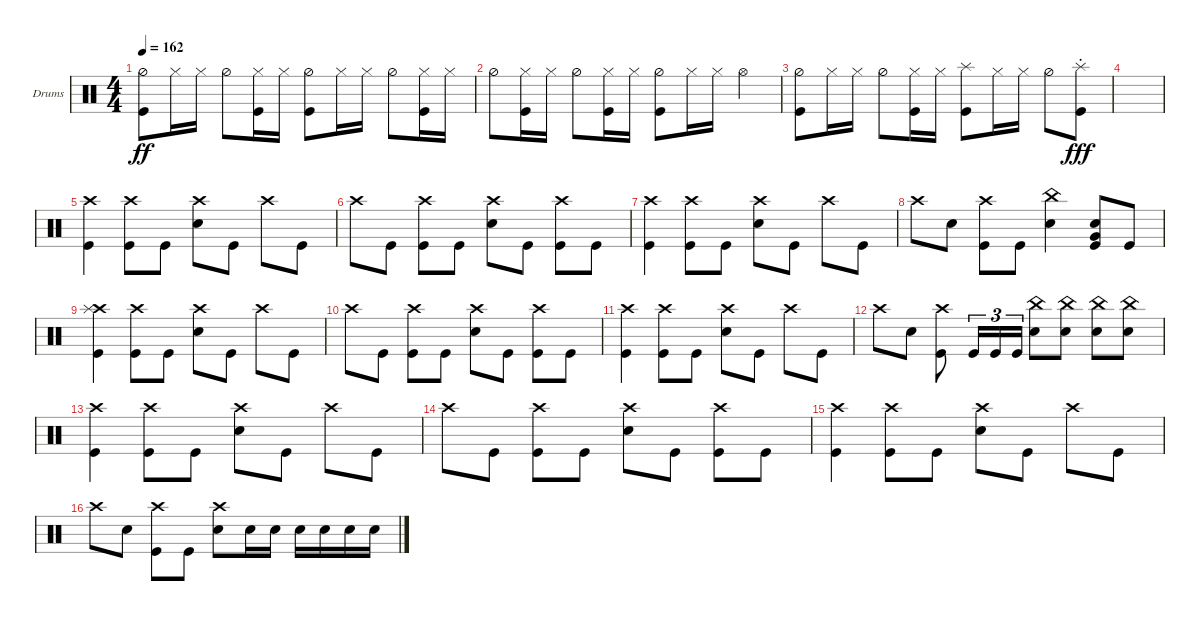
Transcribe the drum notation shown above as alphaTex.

\bracketExtendMode groupsimilarinstruments
\firstSystemTrackNameOrientation horizontal
\otherSystemsTrackNameOrientation horizontal
\track ("Drumkit" "Drums") {instrument percussion}
\staff {score}
\articulation defaults
\ts (4 4)
\tempo 162
\clef neutral
\ks c
("Hi-Hat (half)" "Kick (hit)").8{dy ff} "Hi-Hat (closed)".16 "Hi-Hat (closed)".16 "Hi-Hat (half)".8 ("Kick (hit)" "Hi-Hat (closed)").16 "Hi-Hat (closed)".16 ("Hi-Hat (half)" "Kick (hit)").8 "Hi-Hat (closed)".16 "Hi-Hat (closed)".16 "Hi-Hat (half)".8 ("Kick (hit)" "Hi-Hat (closed)").16 "Hi-Hat (closed)".16 |
"Hi-Hat (half)".8 ("Hi-Hat (closed)" "Kick (hit)").16 "Hi-Hat (closed)".16 "Hi-Hat (half)".8 ("Kick (hit)" "Hi-Hat (closed)").16 "Hi-Hat (closed)".16 ("Hi-Hat (half)" "Kick (hit)").8 "Hi-Hat (closed)".16 "Hi-Hat (closed)".16 "Hi-Hat (open)".4 |
("Hi-Hat (half)" "Kick (hit)").8 "Hi-Hat (closed)".16 "Hi-Hat (closed)".16 "Hi-Hat (half)".8 ("Kick (hit)" "Hi-Hat (closed)").16 "Hi-Hat (closed)".16 ("Kick (hit)" "Splash (hit)").8 "Hi-Hat (closed)".16 "Hi-Hat (closed)".16 "Hi-Hat (half)".8 ("Kick (hit)"{st} "Splash (hit)"{st}).8{dy fff} |
|
("Kick (hit)" "Crash high (hit)").4 ("Kick (hit)" "Crash high (hit)").8 "Kick (hit)".8 ("Snare (hit) 2" "Crash high (hit)").8 "Kick (hit)".8 "Crash high (hit)".8 "Kick (hit)".8 |
"Crash high (hit)".8 "Kick (hit)".8 ("Kick (hit)" "Crash high (hit)").8 "Kick (hit)".8 ("Snare (hit) 2" "Crash high (hit)").8 "Kick (hit)".8 ("Kick (hit)" "Crash high (hit)").8 "Kick (hit)".8 |
("Kick (hit)" "Crash high (hit)").4 ("Kick (hit)" "Crash high (hit)").8 "Kick (hit)".8 ("Snare (hit) 2" "Crash high (hit)").8 "Kick (hit)".8 "Crash high (hit)".8 "Kick (hit)".8 |
"Crash high (hit)".8 "Snare (hit) 2".8 ("Kick (hit)" "Crash high (hit)").8 "Kick (hit)".8 ("Snare (hit) 2" "China (hit)").4 ("Snare (hit) 2" "Very Low Tom (hit)" "Kick (hit)").8 "Kick (hit)".8 |
("Kick (hit)" "Crash high (hit)" "Splash (hit)").4 ("Kick (hit)" "Crash high (hit)").8 "Kick (hit)".8 ("Snare (hit) 2" "Crash high (hit)").8 "Kick (hit)".8 "Crash high (hit)".8 "Kick (hit)".8 |
"Crash high (hit)".8 "Kick (hit)".8 ("Kick (hit)" "Crash high (hit)").8 "Kick (hit)".8 ("Snare (hit) 2" "Crash high (hit)").8 "Kick (hit)".8 ("Kick (hit)" "Crash high (hit)").8 "Kick (hit)".8 |
("Kick (hit)" "Crash high (hit)").4 ("Kick (hit)" "Crash high (hit)").8 "Kick (hit)".8 ("Snare (hit) 2" "Crash high (hit)").8 "Kick (hit)".8 "Crash high (hit)".8 "Kick (hit)".8 |
"Crash high (hit)".8 "Snare (hit) 2".8 ("Kick (hit)" "Crash high (hit)").8 "Kick (hit)".16{tu (3 2)} "Kick (hit)".16{tu (3 2)} "Kick (hit)".16{tu (3 2)} ("Snare (hit) 2" "China (hit)").8 ("China (hit)" "Snare (hit) 2").8 ("China (hit)" "Snare (hit) 2").8 ("China (hit)" "Snare (hit) 2").8 |
("Kick (hit)" "Crash high (hit)").4 ("Kick (hit)" "Crash high (hit)").8 "Kick (hit)".8 ("Snare (hit) 2" "Crash high (hit)").8 "Kick (hit)".8 "Crash high (hit)".8 "Kick (hit)".8 |
"Crash high (hit)".8 "Kick (hit)".8 ("Kick (hit)" "Crash high (hit)").8 "Kick (hit)".8 ("Snare (hit) 2" "Crash high (hit)").8 "Kick (hit)".8 ("Kick (hit)" "Crash high (hit)").8 "Kick (hit)".8 |
("Kick (hit)" "Crash high (hit)").4 ("Kick (hit)" "Crash high (hit)").8 "Kick (hit)".8 ("Snare (hit) 2" "Crash high (hit)").8 "Kick (hit)".8 "Crash high (hit)".8 "Kick (hit)".8 |
"Crash high (hit)".8 "Snare (hit) 2".8 ("Kick (hit)" "Crash high (hit)").8 "Kick (hit)".8 ("Snare (hit) 2" "Crash high (hit)").8 "Snare (hit) 2".16 "Snare (hit) 2".16 "Snare (hit) 2".16 "Snare (hit) 2".16 "Snare (hit) 2".16 "Snare (hit) 2".16
